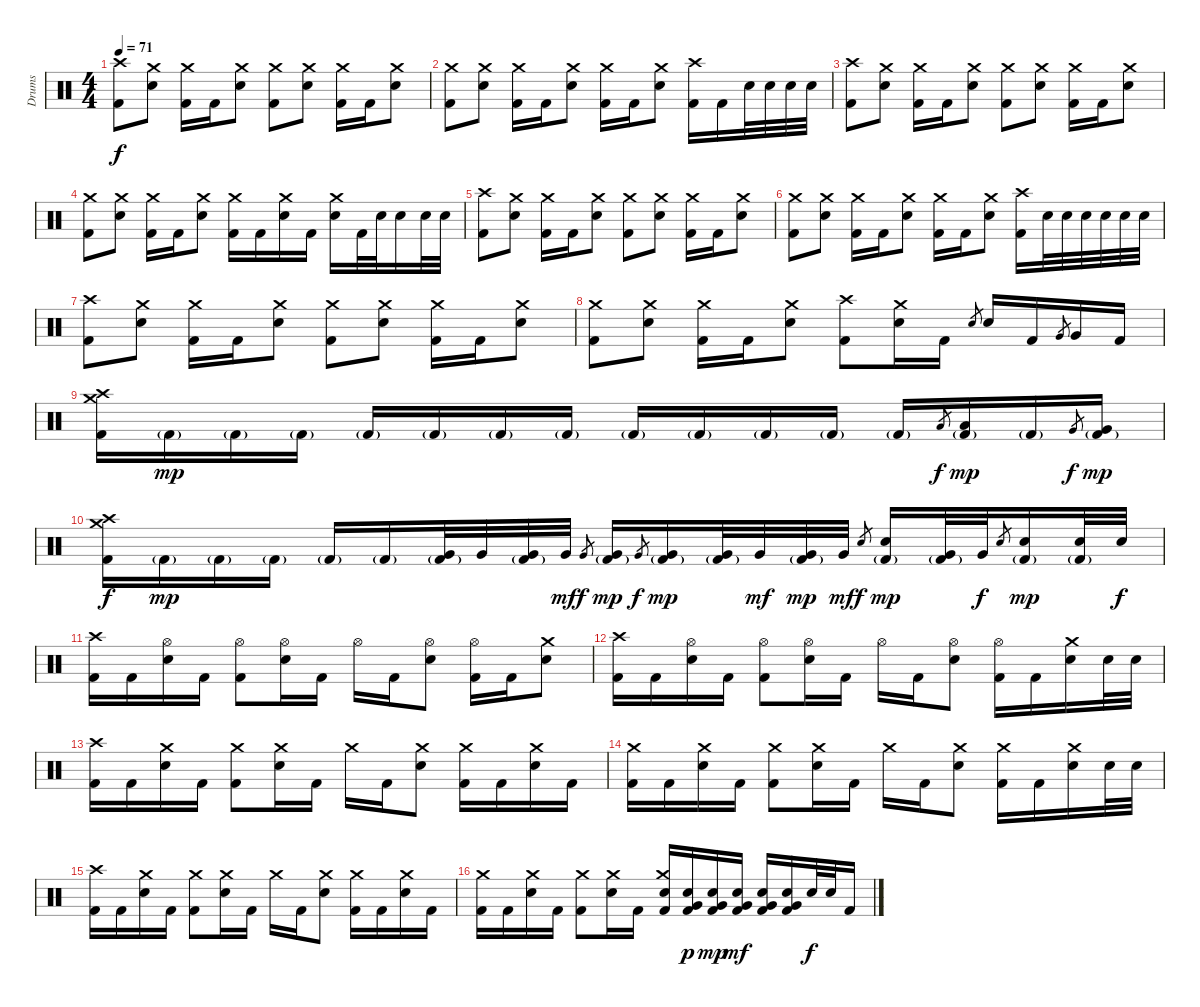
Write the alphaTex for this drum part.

\track ("Drums" "Drums") {instrument percussion}
\staff {score}
\articulation defaults
\ts (4 4)
\tempo 71
\clef neutral
\ks c
("Crash high (hit)" "Kick (hit) 2").8{dy f} ("Crash medium (hit)" "Snare (hit) 2").8 ("Crash medium (hit)" "Kick (hit) 2").16 "Kick (hit) 2".16 ("Crash medium (hit)" "Snare (hit) 2").8 ("Crash medium (hit)" "Kick (hit) 2").8 ("Crash medium (hit)" "Snare (hit) 2").8 ("Crash medium (hit)" "Kick (hit) 2").16 "Kick (hit) 2".16 ("Crash medium (hit)" "Snare (hit) 2").8 |
("Crash medium (hit)" "Kick (hit) 2").8 ("Crash medium (hit)" "Snare (hit) 2").8 ("Crash medium (hit)" "Kick (hit) 2").16 "Kick (hit) 2".16 ("Crash medium (hit)" "Snare (hit) 2").8 ("Crash medium (hit)" "Kick (hit) 2").16 "Kick (hit) 2".16 ("Crash medium (hit)" "Snare (hit) 2").8 ("Crash high (hit)" "Kick (hit) 2").16 "Kick (hit) 2".16 "Snare (hit) 2".32 "Snare (hit) 2".32 "Snare (hit) 2".32 "Snare (hit) 2".32 |
("Crash high (hit)" "Kick (hit) 2").8 ("Crash medium (hit)" "Snare (hit) 2").8 ("Crash medium (hit)" "Kick (hit) 2").16 "Kick (hit) 2".16 ("Crash medium (hit)" "Snare (hit) 2").8 ("Crash medium (hit)" "Kick (hit) 2").8 ("Crash medium (hit)" "Snare (hit) 2").8 ("Crash medium (hit)" "Kick (hit) 2").16 "Kick (hit) 2".16 ("Crash medium (hit)" "Snare (hit) 2").8 |
("Crash medium (hit)" "Kick (hit) 2").8 ("Crash medium (hit)" "Snare (hit) 2").8 ("Crash medium (hit)" "Kick (hit) 2").16 "Kick (hit) 2".16 ("Crash medium (hit)" "Snare (hit) 2").8 ("Crash medium (hit)" "Kick (hit) 2").16 "Kick (hit) 2".16 ("Crash medium (hit)" "Snare (hit) 2").16 "Kick (hit) 2".16 ("Crash medium (hit)" "Snare (hit) 2").16 "Kick (hit) 2".32 "Snare (hit) 2".32 "Snare (hit) 2".16 "Snare (hit) 2".32 "Snare (hit) 2".32 |
("Crash high (hit)" "Kick (hit) 2").8 ("Crash medium (hit)" "Snare (hit) 2").8 ("Crash medium (hit)" "Kick (hit) 2").16 "Kick (hit) 2".16 ("Crash medium (hit)" "Snare (hit) 2").8 ("Crash medium (hit)" "Kick (hit) 2").8 ("Crash medium (hit)" "Snare (hit) 2").8 ("Crash medium (hit)" "Kick (hit) 2").16 "Kick (hit) 2".16 ("Crash medium (hit)" "Snare (hit) 2").8 |
("Crash medium (hit)" "Kick (hit) 2").8 ("Crash medium (hit)" "Snare (hit) 2").8 ("Crash medium (hit)" "Kick (hit) 2").16 "Kick (hit) 2".16 ("Crash medium (hit)" "Snare (hit) 2").8 ("Crash medium (hit)" "Kick (hit) 2").16 "Kick (hit) 2".16 ("Crash medium (hit)" "Snare (hit) 2").8 ("Crash high (hit)" "Kick (hit) 2").16 "Snare (hit) 2".32 "Snare (hit) 2".32 "Snare (hit) 2".32 "Snare (hit) 2".32 "Snare (hit) 2".32 "Snare (hit) 2".32 |
("Crash high (hit)" "Kick (hit) 2").8 ("Crash medium (hit)" "Snare (hit) 2").8 ("Crash medium (hit)" "Kick (hit) 2").16 "Kick (hit) 2".16 ("Crash medium (hit)" "Snare (hit) 2").8 ("Crash medium (hit)" "Kick (hit) 2").8 ("Crash medium (hit)" "Snare (hit) 2").8 ("Crash medium (hit)" "Kick (hit) 2").16 "Kick (hit) 2".16 ("Crash medium (hit)" "Snare (hit) 2").8 |
("Crash medium (hit)" "Kick (hit) 2").8 ("Crash medium (hit)" "Snare (hit) 2").8 ("Crash medium (hit)" "Kick (hit) 2").16 "Kick (hit) 2".16 ("Crash medium (hit)" "Snare (hit) 2").8 ("Crash high (hit)" "Kick (hit) 2").8 ("Crash medium (hit)" "Snare (hit) 2").16 "Kick (hit) 2".16 "Snare (hit) 2".8{gr} "Snare (hit) 2".16 "Kick (hit) 2".16 "Very Low Tom (hit)".8{gr} "Very Low Tom (hit)".16 "Kick (hit) 2".16 |
("Crash high (hit)" "Crash medium (hit)" "Kick (hit) 2").16 "Kick (hit) 2"{g}.16{dy mp} "Kick (hit) 2"{g}.16 "Kick (hit) 2"{g}.16 "Kick (hit) 2"{g}.16 "Kick (hit) 2"{g}.16 "Kick (hit) 2"{g}.16 "Kick (hit) 2"{g}.16 "Kick (hit) 2"{g}.16 "Kick (hit) 2"{g}.16 "Kick (hit) 2"{g}.16 "Kick (hit) 2"{g}.16 "Kick (hit) 2"{g}.16 "Low Tom (hit)".8{gr dy f} ("Low Tom (hit)" "Kick (hit) 2"{g}).16{dy mp} "Kick (hit) 2"{g}.16 "Very Low Tom (hit)".8{gr dy f} ("Very Low Tom (hit)" "Kick (hit) 2"{g}).16{dy mp} |
("Crash high (hit)" "Crash medium (hit)" "Kick (hit) 2").16{dy f} "Kick (hit) 2"{g}.16{dy mp} "Kick (hit) 2"{g}.16 "Kick (hit) 2"{g}.16 "Kick (hit) 2"{g}.16 "Kick (hit) 2"{g}.16 ("Very Low Tom (hit)" "Kick (hit) 2"{g}).32 "Very Low Tom (hit)".32 ("Very Low Tom (hit)" "Kick (hit) 2"{g}).32 "Very Low Tom (hit)".32{dy mf} "Very Low Tom (hit)".8{gr dy f} ("Very Low Tom (hit)" "Kick (hit) 2"{g}).16{dy mp} "Very Low Tom (hit)".8{gr dy f} ("Very Low Tom (hit)" "Kick (hit) 2"{g}).16{dy mp} ("Very Low Tom (hit)" "Kick (hit) 2"{g}).32 "Very Low Tom (hit)".32{dy mf} ("Very Low Tom (hit)" "Kick (hit) 2"{g}).32{dy mp} "Very Low Tom (hit)".32{dy mf} "Snare (hit) 2".8{gr dy f} ("Snare (hit) 2" "Kick (hit) 2"{g}).16{dy mp} ("Very Low Tom (hit)" "Kick (hit) 2"{g}).32 "Very Low Tom (hit)".32{dy f} "Snare (hit) 2".8{gr} ("Snare (hit) 2" "Kick (hit) 2"{g}).16{dy mp} ("Snare (hit) 2" "Kick (hit) 2"{g}).32 "Snare (hit) 2".32{dy f} |
("Crash high (hit)" "Kick (hit) 2").16 "Kick (hit) 2".16 ("Hi-Hat (open)" "Snare (hit) 2").16 "Kick (hit) 2".16 ("Hi-Hat (open)" "Kick (hit) 2").8 ("Hi-Hat (open)" "Snare (hit) 2").16 "Kick (hit) 2".16 "Hi-Hat (open)".16 "Kick (hit) 2".16 ("Hi-Hat (open)" "Snare (hit) 2").8 ("Hi-Hat (open)" "Kick (hit) 2").16 "Kick (hit) 2".16 ("Crash medium (hit)" "Snare (hit) 2").8 |
("Crash high (hit)" "Kick (hit) 2").16 "Kick (hit) 2".16 ("Hi-Hat (open)" "Snare (hit) 2").16 "Kick (hit) 2".16 ("Hi-Hat (open)" "Kick (hit) 2").8 ("Hi-Hat (open)" "Snare (hit) 2").16 "Kick (hit) 2".16 "Hi-Hat (open)".16 "Kick (hit) 2".16 ("Hi-Hat (open)" "Snare (hit) 2").8 ("Hi-Hat (open)" "Kick (hit) 2").16 "Kick (hit) 2".16 ("Crash medium (hit)" "Snare (hit) 2").16 "Snare (hit) 2".32 "Snare (hit) 2".32 |
("Crash high (hit)" "Kick (hit) 2").16 "Kick (hit) 2".16 ("Crash medium (hit)" "Snare (hit) 2").16 "Kick (hit) 2".16 ("Crash medium (hit)" "Kick (hit) 2").8 ("Crash medium (hit)" "Snare (hit) 2").16 "Kick (hit) 2".16 "Crash medium (hit)".16 "Kick (hit) 2".16 ("Crash medium (hit)" "Snare (hit) 2").8 ("Crash medium (hit)" "Kick (hit) 2").16 "Kick (hit) 2".16 ("Crash medium (hit)" "Snare (hit) 2").16 "Kick (hit) 2".16 |
("Crash medium (hit)" "Kick (hit) 2").16 "Kick (hit) 2".16 ("Crash medium (hit)" "Snare (hit) 2").16 "Kick (hit) 2".16 ("Crash medium (hit)" "Kick (hit) 2").8 ("Crash medium (hit)" "Snare (hit) 2").16 "Kick (hit) 2".16 "Crash medium (hit)".16 "Kick (hit) 2".16 ("Crash medium (hit)" "Snare (hit) 2").8 ("Crash medium (hit)" "Kick (hit) 2").16 "Kick (hit) 2".16 ("Crash medium (hit)" "Snare (hit) 2").16 "Snare (hit) 2".32 "Snare (hit) 2".32 |
("Crash high (hit)" "Kick (hit) 2").16 "Kick (hit) 2".16 ("Crash medium (hit)" "Snare (hit) 2").16 "Kick (hit) 2".16 ("Crash medium (hit)" "Kick (hit) 2").8 ("Crash medium (hit)" "Snare (hit) 2").16 "Kick (hit) 2".16 "Crash medium (hit)".16 "Kick (hit) 2".16 ("Crash medium (hit)" "Snare (hit) 2").8 ("Crash medium (hit)" "Kick (hit) 2").16 "Kick (hit) 2".16 ("Crash medium (hit)" "Snare (hit) 2").16 "Kick (hit) 2".16 |
("Crash medium (hit)" "Kick (hit) 2").16 "Kick (hit) 2".16 ("Crash medium (hit)" "Snare (hit) 2").16 "Kick (hit) 2".16 ("Crash medium (hit)" "Kick (hit) 2").8 ("Crash medium (hit)" "Snare (hit) 2").16 "Kick (hit) 2".16 ("Crash medium (hit)" "Snare (hit) 2" "Kick (hit) 2").16 ("Snare (hit) 2" "Very Low Tom (hit)" "Kick (hit) 2").16{dy p} ("Snare (hit) 2" "Very Low Tom (hit)" "Kick (hit) 2").16{dy mp} ("Snare (hit) 2" "Very Low Tom (hit)" "Kick (hit) 2").16{dy mf} ("Snare (hit) 2" "Very Low Tom (hit)" "Kick (hit) 2").16 ("Snare (hit) 2" "Very Low Tom (hit)" "Kick (hit) 2").16 "Snare (hit) 2".32{dy f} "Snare (hit) 2".32 "Kick (hit) 2".16
